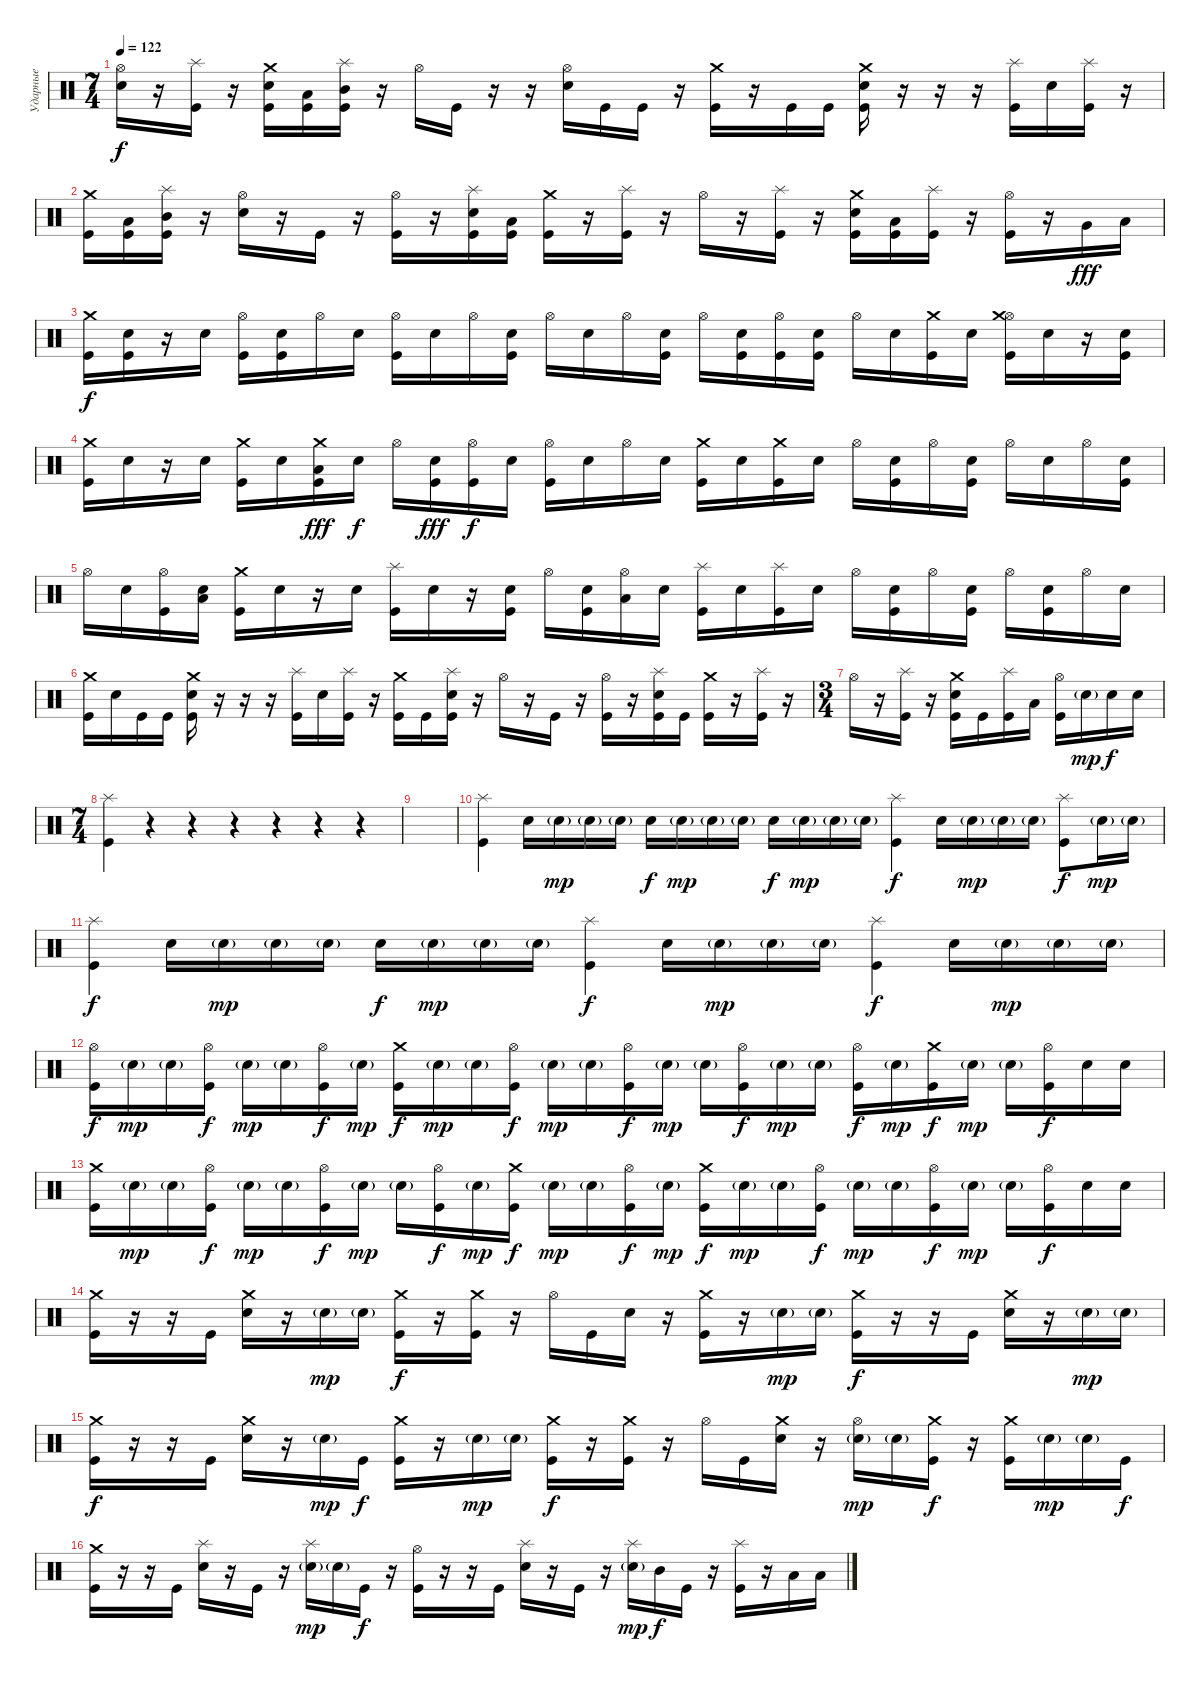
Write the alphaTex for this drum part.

\track ("Ударные" "Ударные") {instrument percussion}
\staff {score}
\articulation defaults
\ts (7 4)
\tempo 122
\clef neutral
\ks c
("Hi-Hat (open)" "Electric Snare (hit)").16{dy f} r.16 ("Splash (hit)" "Kick (hit)").16 r.16 ("Crash medium (hit)" "Electric Snare (hit)" "Kick (hit)").16 ("Low Tom (hit)" "Kick (hit)").16 ("Splash (hit)" "Mid Tom (hit)" "Kick (hit)").16 r.16 "Hi-Hat (open)".16 "Kick (hit)".16 r.16 r.16 ("Hi-Hat (open)" "Electric Snare (hit)").16 "Kick (hit)".16 "Kick (hit)".16 r.16 ("Crash medium (hit)" "Kick (hit)").16 r.16 "Kick (hit)".16 "Kick (hit)".16 ("Crash medium (hit)" "Electric Snare (hit)" "Kick (hit)").16 r.16 r.16 r.16 ("Splash (hit)" "Kick (hit)").16 "Electric Snare (hit)".16 ("Splash (hit)" "Kick (hit)").16 r.16 |
("Crash medium (hit)" "Kick (hit)").16 ("Low Tom (hit)" "Kick (hit)").16 ("Splash (hit)" "Mid Tom (hit)" "Kick (hit)").16 r.16 ("Hi-Hat (open)" "Electric Snare (hit)").16 r.16 "Kick (hit)".16 r.16 ("Hi-Hat (open)" "Kick (hit)").16 r.16 ("Splash (hit)" "Electric Snare (hit)" "Kick (hit)").16 ("Low Tom (hit)" "Kick (hit)").16 ("Crash medium (hit)" "Kick (hit)").16 r.16 ("Splash (hit)" "Kick (hit)").16 r.16 "Hi-Hat (open)".16 r.16 ("Splash (hit)" "Kick (hit)").16 r.16 ("Crash medium (hit)" "Electric Snare (hit)" "Kick (hit)").16 ("Low Tom (hit)" "Kick (hit)").16 ("Splash (hit)" "Kick (hit)").16 r.16 ("Hi-Hat (open)" "Kick (hit)").16 r.16 "Very Low Tom (hit)".16{dy fff} "Low Floor Tom (hit)".16 |
("Crash medium (hit)" "Kick (hit)").16{dy f} ("Electric Snare (hit)" "Kick (hit)").16 r.16 "Electric Snare (hit)".16 ("Hi-Hat (open)" "Kick (hit)").16 ("Electric Snare (hit)" "Kick (hit)").16 "Hi-Hat (open)".16 "Electric Snare (hit)".16 ("Hi-Hat (open)" "Kick (hit)").16 "Electric Snare (hit)".16 "Hi-Hat (open)".16 ("Electric Snare (hit)" "Kick (hit)").16 "Hi-Hat (open)".16 "Electric Snare (hit)".16 "Hi-Hat (open)".16 ("Electric Snare (hit)" "Kick (hit)").16 "Hi-Hat (open)".16 ("Electric Snare (hit)" "Kick (hit)").16 ("Hi-Hat (open)" "Kick (hit)").16 ("Electric Snare (hit)" "Kick (hit)").16 "Hi-Hat (open)".16 "Electric Snare (hit)".16 ("Crash medium (hit)" "Kick (hit)").16 "Electric Snare (hit)".16 ("Hi-Hat (open)" "Crash medium (hit)" "Kick (hit)").16 "Electric Snare (hit)".16 r.16 ("Electric Snare (hit)" "Kick (hit)").16 |
("Crash medium (hit)" "Kick (hit)").16 "Electric Snare (hit)".16 r.16 "Electric Snare (hit)".16 ("Crash medium (hit)" "Kick (hit)").16 "Electric Snare (hit)".16 ("Crash medium (hit)" "Low Tom (hit)" "Kick (hit)").16{dy fff} "Electric Snare (hit)".16{dy f} "Hi-Hat (open)".16 ("Electric Snare (hit)" "Kick (hit)").16{dy fff} ("Hi-Hat (open)" "Kick (hit)").16{dy f} "Electric Snare (hit)".16 ("Hi-Hat (open)" "Kick (hit)").16 "Electric Snare (hit)".16 "Hi-Hat (open)".16 "Electric Snare (hit)".16 ("Crash medium (hit)" "Kick (hit)").16 "Electric Snare (hit)".16 ("Crash medium (hit)" "Kick (hit)").16 "Electric Snare (hit)".16 "Hi-Hat (open)".16 ("Electric Snare (hit)" "Kick (hit)").16 "Hi-Hat (open)".16 ("Electric Snare (hit)" "Kick (hit)").16 "Hi-Hat (open)".16 "Electric Snare (hit)".16 "Hi-Hat (open)".16 ("Electric Snare (hit)" "Kick (hit)").16 |
"Hi-Hat (open)".16 "Electric Snare (hit)".16 ("Hi-Hat (open)" "Kick (hit)").16 ("Electric Snare (hit)" "Low Tom (hit)").16 ("Crash medium (hit)" "Kick (hit)").16 "Electric Snare (hit)".16 r.16 "Electric Snare (hit)".16 ("Splash (hit)" "Kick (hit)").16 "Electric Snare (hit)".16 r.16 ("Electric Snare (hit)" "Kick (hit)").16 "Hi-Hat (open)".16 ("Electric Snare (hit)" "Kick (hit)").16 ("Hi-Hat (open)" "Low Tom (hit)").16 "Electric Snare (hit)".16 ("Splash (hit)" "Kick (hit)").16 "Electric Snare (hit)".16 ("Splash (hit)" "Kick (hit)").16 "Electric Snare (hit)".16 "Hi-Hat (open)".16 ("Electric Snare (hit)" "Kick (hit)").16 "Hi-Hat (open)".16 ("Electric Snare (hit)" "Kick (hit)").16 "Hi-Hat (open)".16 ("Electric Snare (hit)" "Kick (hit)").16 "Hi-Hat (open)".16 "Electric Snare (hit)".16 |
("Crash medium (hit)" "Kick (hit)").16 "Electric Snare (hit)".16 "Kick (hit)".16 "Kick (hit)".16 ("Crash medium (hit)" "Electric Snare (hit)" "Kick (hit)").16 r.16 r.16 r.16 ("Splash (hit)" "Kick (hit)").16 "Electric Snare (hit)".16 ("Splash (hit)" "Kick (hit)").16 r.16 ("Crash medium (hit)" "Kick (hit)").16 "Kick (hit)".16 ("Splash (hit)" "Electric Snare (hit)" "Kick (hit)").16 r.16 "Hi-Hat (open)".16 r.16 "Kick (hit)".16 r.16 ("Hi-Hat (open)" "Kick (hit)").16 r.16 ("Splash (hit)" "Electric Snare (hit)" "Kick (hit)").16 "Kick (hit)".16 ("Crash medium (hit)" "Kick (hit)").16 r.16 ("Splash (hit)" "Kick (hit)").16 r.16 |
\ts (3 4)
"Hi-Hat (open)".16 r.16 ("Splash (hit)" "Kick (hit)").16 r.16 ("Crash medium (hit)" "Electric Snare (hit)" "Kick (hit)").16 "Kick (hit)".16 ("Splash (hit)" "Kick (hit)").16 "Low Floor Tom (hit)".16 ("Hi-Hat (open)" "Kick (hit)").16 "Electric Snare (hit)"{g}.16{dy mp} "Electric Snare (hit)".16{dy f} "Electric Snare (hit)".16 |
\ts (7 4)
("Splash (hit)" "Kick (hit)").4 r.4 r.4 r.4 r.4 r.4 r.4 |
|
("Splash (hit)" "Kick (hit)").4 "Electric Snare (hit)".16 "Electric Snare (hit)"{g}.16{dy mp} "Electric Snare (hit)"{g}.16 "Electric Snare (hit)"{g}.16 "Electric Snare (hit)".16{dy f} "Electric Snare (hit)"{g}.16{dy mp} "Electric Snare (hit)"{g}.16 "Electric Snare (hit)"{g}.16 "Electric Snare (hit)".16{dy f} "Electric Snare (hit)"{g}.16{dy mp} "Electric Snare (hit)"{g}.16 "Electric Snare (hit)"{g}.16 ("Splash (hit)" "Kick (hit)").4{dy f} "Electric Snare (hit)".16 "Electric Snare (hit)"{g}.16{dy mp} "Electric Snare (hit)"{g}.16 "Electric Snare (hit)"{g}.16 ("Splash (hit)" "Kick (hit)").8{dy f} "Electric Snare (hit)"{g}.16{dy mp} "Electric Snare (hit)"{g}.16 |
("Splash (hit)" "Kick (hit)").4{dy f} "Electric Snare (hit)".16 "Electric Snare (hit)"{g}.16{dy mp} "Electric Snare (hit)"{g}.16 "Electric Snare (hit)"{g}.16 "Electric Snare (hit)".16{dy f} "Electric Snare (hit)"{g}.16{dy mp} "Electric Snare (hit)"{g}.16 "Electric Snare (hit)"{g}.16 ("Splash (hit)" "Kick (hit)").4{dy f} "Electric Snare (hit)".16 "Electric Snare (hit)"{g}.16{dy mp} "Electric Snare (hit)"{g}.16 "Electric Snare (hit)"{g}.16 ("Splash (hit)" "Kick (hit)").4{dy f} "Electric Snare (hit)".16 "Electric Snare (hit)"{g}.16{dy mp} "Electric Snare (hit)"{g}.16 "Electric Snare (hit)"{g}.16 |
("Hi-Hat (open)" "Kick (hit)").16{dy f} "Electric Snare (hit)"{g}.16{dy mp} "Electric Snare (hit)"{g}.16 ("Hi-Hat (open)" "Kick (hit)").16{dy f} "Electric Snare (hit)"{g}.16{dy mp} "Electric Snare (hit)"{g}.16 ("Hi-Hat (open)" "Kick (hit)").16{dy f} "Electric Snare (hit)"{g}.16{dy mp} ("Crash medium (hit)" "Kick (hit)").16{dy f} "Electric Snare (hit)"{g}.16{dy mp} "Electric Snare (hit)"{g}.16 ("Hi-Hat (open)" "Kick (hit)").16{dy f} "Electric Snare (hit)"{g}.16{dy mp} "Electric Snare (hit)"{g}.16 ("Hi-Hat (open)" "Kick (hit)").16{dy f} "Electric Snare (hit)"{g}.16{dy mp} "Electric Snare (hit)"{g}.16 ("Hi-Hat (open)" "Kick (hit)").16{dy f} "Electric Snare (hit)"{g}.16{dy mp} "Electric Snare (hit)"{g}.16 ("Hi-Hat (open)" "Kick (hit)").16{dy f} "Electric Snare (hit)"{g}.16{dy mp} ("Crash medium (hit)" "Kick (hit)").16{dy f} "Electric Snare (hit)"{g}.16{dy mp} "Electric Snare (hit)"{g}.16 ("Hi-Hat (open)" "Kick (hit)").16{dy f} "Electric Snare (hit)".16 "Electric Snare (hit)".16 |
("Crash medium (hit)" "Kick (hit)").16 "Electric Snare (hit)"{g}.16{dy mp} "Electric Snare (hit)"{g}.16 ("Hi-Hat (open)" "Kick (hit)").16{dy f} "Electric Snare (hit)"{g}.16{dy mp} "Electric Snare (hit)"{g}.16 ("Hi-Hat (open)" "Kick (hit)").16{dy f} "Electric Snare (hit)"{g}.16{dy mp} "Electric Snare (hit)"{g}.16 ("Hi-Hat (open)" "Kick (hit)").16{dy f} "Electric Snare (hit)"{g}.16{dy mp} ("Crash medium (hit)" "Kick (hit)").16{dy f} "Electric Snare (hit)"{g}.16{dy mp} "Electric Snare (hit)"{g}.16 ("Hi-Hat (open)" "Kick (hit)").16{dy f} "Electric Snare (hit)"{g}.16{dy mp} ("Crash medium (hit)" "Kick (hit)").16{dy f} "Electric Snare (hit)"{g}.16{dy mp} "Electric Snare (hit)"{g}.16 ("Hi-Hat (open)" "Kick (hit)").16{dy f} "Electric Snare (hit)"{g}.16{dy mp} "Electric Snare (hit)"{g}.16 ("Hi-Hat (open)" "Kick (hit)").16{dy f} "Electric Snare (hit)"{g}.16{dy mp} "Electric Snare (hit)"{g}.16 ("Hi-Hat (open)" "Kick (hit)").16{dy f} "Electric Snare (hit)".16 "Electric Snare (hit)".16 |
("Crash medium (hit)" "Kick (hit)").16 r.16 r.16 "Kick (hit)".16 ("Crash medium (hit)" "Electric Snare (hit)").16 r.16 "Electric Snare (hit)"{g}.16{dy mp} "Electric Snare (hit)"{g}.16 ("Crash medium (hit)" "Kick (hit)").16{dy f} r.16 ("Crash medium (hit)" "Kick (hit)").16 r.16 "Hi-Hat (open)".16 "Kick (hit)".16 "Electric Snare (hit)".16 r.16 ("Crash medium (hit)" "Kick (hit)").16 r.16 "Electric Snare (hit)"{g}.16{dy mp} "Electric Snare (hit)"{g}.16 ("Crash medium (hit)" "Kick (hit)").16{dy f} r.16 r.16 "Kick (hit)".16 ("Crash medium (hit)" "Electric Snare (hit)").16 r.16 "Electric Snare (hit)"{g}.16{dy mp} "Electric Snare (hit)"{g}.16 |
("Crash medium (hit)" "Kick (hit)").16{dy f} r.16 r.16 "Kick (hit)".16 ("Crash medium (hit)" "Electric Snare (hit)").16 r.16 "Electric Snare (hit)"{g}.16{dy mp} "Kick (hit)".16{dy f} ("Crash medium (hit)" "Kick (hit)").16 r.16 "Electric Snare (hit)"{g}.16{dy mp} "Electric Snare (hit)"{g}.16 ("Crash medium (hit)" "Kick (hit)").16{dy f} r.16 ("Crash medium (hit)" "Kick (hit)").16 r.16 "Hi-Hat (open)".16 "Kick (hit)".16 ("Crash medium (hit)" "Electric Snare (hit)").16 r.16 ("Hi-Hat (open)" "Electric Snare (hit)"{g}).16{dy mp} "Electric Snare (hit)"{g}.16 ("Crash medium (hit)" "Kick (hit)").16{dy f} r.16 ("Crash medium (hit)" "Kick (hit)").16 "Electric Snare (hit)"{g}.16{dy mp} "Electric Snare (hit)"{g}.16 "Kick (hit)".16{dy f} |
("Crash medium (hit)" "Kick (hit)").16 r.16 r.16 "Kick (hit)".16 ("Splash (hit)" "Electric Snare (hit)").16 r.16 "Kick (hit)".16 r.16 ("Splash (hit)" "Electric Snare (hit)"{g}).16{dy mp} "Electric Snare (hit)"{g}.16 "Kick (hit)".16{dy f} r.16 ("Hi-Hat (open)" "Kick (hit)").16 r.16 r.16 "Kick (hit)".16 ("Splash (hit)" "Electric Snare (hit)").16 r.16 "Kick (hit)".16 r.16 ("Splash (hit)" "Electric Snare (hit)"{g}).16{dy mp} "Mid Tom (hit)".16{dy f} "Kick (hit)".16 r.16 ("Splash (hit)" "Kick (hit)").16 r.16 "Low Tom (hit)".16 "Low Tom (hit)".16
